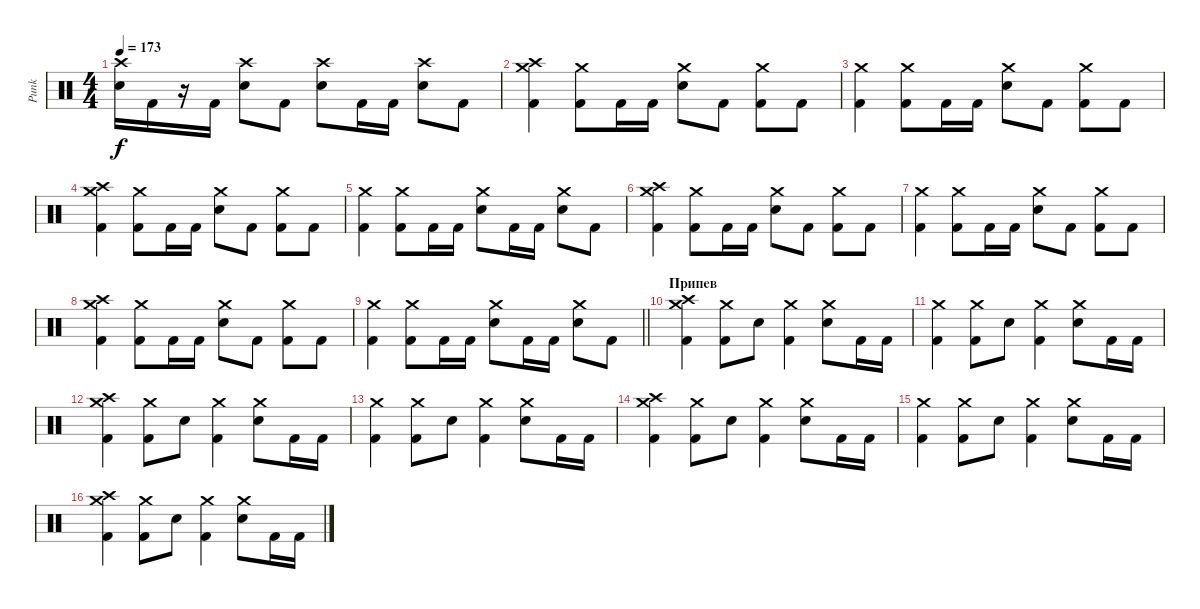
\track ("Punk" "Punk") {instrument percussion}
\staff {score}
\articulation defaults
\ts (4 4)
\tempo 173
\clef neutral
\ks c
("Crash high (hit)" "Electric Snare (hit)").16{dy f} "Kick (hit) 2".16 r.16 "Kick (hit) 2".16 ("Crash high (hit)" "Electric Snare (hit)").8 "Kick (hit) 2".8 ("Crash high (hit)" "Electric Snare (hit)").8 "Kick (hit) 2".16 "Kick (hit) 2".16 ("Crash high (hit)" "Electric Snare (hit)").8 "Kick (hit) 2".8 |
("Crash medium (hit)" "Crash high (hit)" "Kick (hit) 2").4 ("Crash medium (hit)" "Kick (hit) 2").8 "Kick (hit) 2".16 "Kick (hit) 2".16 ("Crash medium (hit)" "Electric Snare (hit)").8 "Kick (hit) 2".8 ("Crash medium (hit)" "Kick (hit) 2").8 "Kick (hit) 2".8 |
("Crash medium (hit)" "Kick (hit) 2").4 ("Crash medium (hit)" "Kick (hit) 2").8 "Kick (hit) 2".16 "Kick (hit) 2".16 ("Crash medium (hit)" "Electric Snare (hit)").8 "Kick (hit) 2".8 ("Crash medium (hit)" "Kick (hit) 2").8 "Kick (hit) 2".8 |
("Crash medium (hit)" "Crash high (hit)" "Kick (hit) 2").4 ("Crash medium (hit)" "Kick (hit) 2").8 "Kick (hit) 2".16 "Kick (hit) 2".16 ("Crash medium (hit)" "Electric Snare (hit)").8 "Kick (hit) 2".8 ("Crash medium (hit)" "Kick (hit) 2").8 "Kick (hit) 2".8 |
("Crash medium (hit)" "Kick (hit) 2").4 ("Crash medium (hit)" "Kick (hit) 2").8 "Kick (hit) 2".16 "Kick (hit) 2".16 ("Crash medium (hit)" "Electric Snare (hit)").8 "Kick (hit) 2".16 "Kick (hit) 2".16 ("Crash medium (hit)" "Electric Snare (hit)").8 "Kick (hit) 2".8 |
("Crash medium (hit)" "Crash high (hit)" "Kick (hit) 2").4 ("Crash medium (hit)" "Kick (hit) 2").8 "Kick (hit) 2".16 "Kick (hit) 2".16 ("Crash medium (hit)" "Electric Snare (hit)").8 "Kick (hit) 2".8 ("Crash medium (hit)" "Kick (hit) 2").8 "Kick (hit) 2".8 |
("Crash medium (hit)" "Kick (hit) 2").4 ("Crash medium (hit)" "Kick (hit) 2").8 "Kick (hit) 2".16 "Kick (hit) 2".16 ("Crash medium (hit)" "Electric Snare (hit)").8 "Kick (hit) 2".8 ("Crash medium (hit)" "Kick (hit) 2").8 "Kick (hit) 2".8 |
("Crash medium (hit)" "Crash high (hit)" "Kick (hit) 2").4 ("Crash medium (hit)" "Kick (hit) 2").8 "Kick (hit) 2".16 "Kick (hit) 2".16 ("Crash medium (hit)" "Electric Snare (hit)").8 "Kick (hit) 2".8 ("Crash medium (hit)" "Kick (hit) 2").8 "Kick (hit) 2".8 |
\barLineRight lightlight
("Crash medium (hit)" "Kick (hit) 2").4 ("Crash medium (hit)" "Kick (hit) 2").8 "Kick (hit) 2".16 "Kick (hit) 2".16 ("Crash medium (hit)" "Electric Snare (hit)").8 "Kick (hit) 2".16 "Kick (hit) 2".16 ("Crash medium (hit)" "Electric Snare (hit)").8 "Kick (hit) 2".8 |
\section ("" "Припев")
("Crash medium (hit)" "Crash high (hit)" "Kick (hit) 2").4 ("Crash medium (hit)" "Kick (hit) 2").8 "Electric Snare (hit)".8 ("Crash medium (hit)" "Kick (hit) 2").4 ("Crash medium (hit)" "Electric Snare (hit)").8 "Kick (hit) 2".16 "Kick (hit) 2".16 |
("Crash medium (hit)" "Kick (hit) 2").4 ("Crash medium (hit)" "Kick (hit) 2").8 "Electric Snare (hit)".8 ("Crash medium (hit)" "Kick (hit) 2").4 ("Crash medium (hit)" "Electric Snare (hit)").8 "Kick (hit) 2".16 "Kick (hit) 2".16 |
("Crash medium (hit)" "Crash high (hit)" "Kick (hit) 2").4 ("Crash medium (hit)" "Kick (hit) 2").8 "Electric Snare (hit)".8 ("Crash medium (hit)" "Kick (hit) 2").4 ("Crash medium (hit)" "Electric Snare (hit)").8 "Kick (hit) 2".16 "Kick (hit) 2".16 |
("Crash medium (hit)" "Kick (hit) 2").4 ("Crash medium (hit)" "Kick (hit) 2").8 "Electric Snare (hit)".8 ("Crash medium (hit)" "Kick (hit) 2").4 ("Crash medium (hit)" "Electric Snare (hit)").8 "Kick (hit) 2".16 "Kick (hit) 2".16 |
("Crash medium (hit)" "Crash high (hit)" "Kick (hit) 2").4 ("Crash medium (hit)" "Kick (hit) 2").8 "Electric Snare (hit)".8 ("Crash medium (hit)" "Kick (hit) 2").4 ("Crash medium (hit)" "Electric Snare (hit)").8 "Kick (hit) 2".16 "Kick (hit) 2".16 |
("Crash medium (hit)" "Kick (hit) 2").4 ("Crash medium (hit)" "Kick (hit) 2").8 "Electric Snare (hit)".8 ("Crash medium (hit)" "Kick (hit) 2").4 ("Crash medium (hit)" "Electric Snare (hit)").8 "Kick (hit) 2".16 "Kick (hit) 2".16 |
("Crash medium (hit)" "Crash high (hit)" "Kick (hit) 2").4 ("Crash medium (hit)" "Kick (hit) 2").8 "Electric Snare (hit)".8 ("Crash medium (hit)" "Kick (hit) 2").4 ("Crash medium (hit)" "Electric Snare (hit)").8 "Kick (hit) 2".16 "Kick (hit) 2".16
